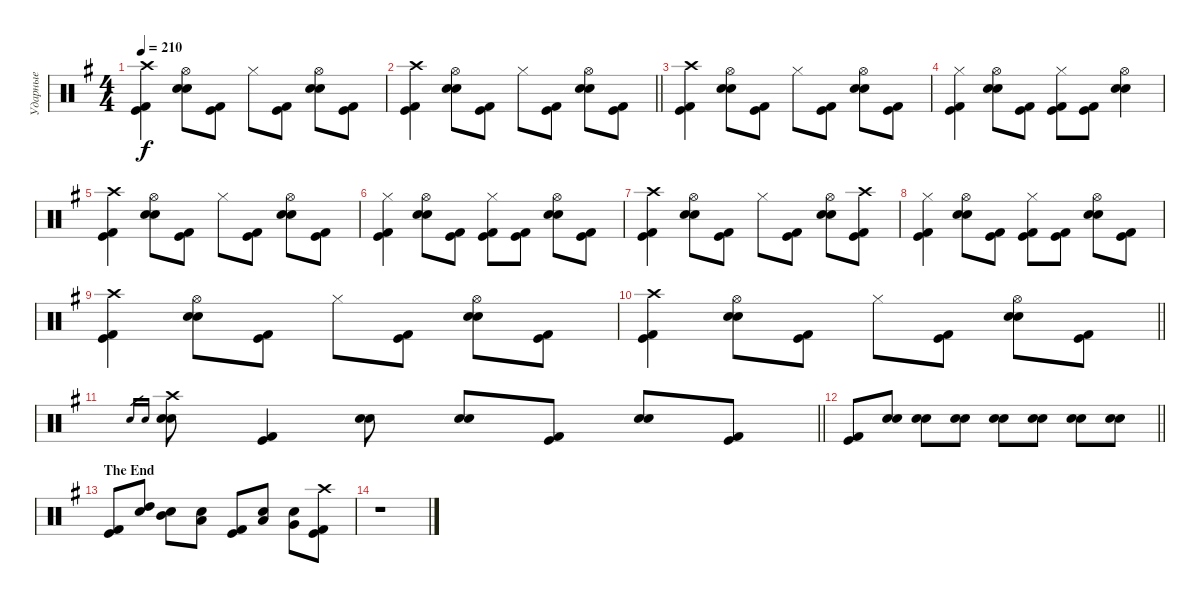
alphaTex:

\track ("Ударные" "Ударные") {instrument percussion}
\staff {score}
\articulation defaults
\ts (4 4)
\tempo 210
\clef neutral
\ks g
("Crash high (hit)" "Kick (hit) 2" "Kick (hit)").4{dy f} ("Hi-Hat (open)" "Electric Snare (hit)" "Snare (hit) 2").8 ("Kick (hit) 2" "Kick (hit)").8 "Hi-Hat (closed)".8 ("Kick (hit) 2" "Kick (hit)").8 ("Hi-Hat (open)" "Electric Snare (hit)" "Snare (hit) 2").8 ("Kick (hit) 2" "Kick (hit)").8 |
\barLineRight lightlight
("Crash high (hit)" "Kick (hit) 2" "Kick (hit)").4 ("Hi-Hat (open)" "Electric Snare (hit)" "Snare (hit) 2").8 ("Kick (hit) 2" "Kick (hit)").8 "Hi-Hat (closed)".8 ("Kick (hit) 2" "Kick (hit)").8 ("Hi-Hat (open)" "Electric Snare (hit)" "Snare (hit) 2").8 ("Kick (hit) 2" "Kick (hit)").8 |
("Crash high (hit)" "Kick (hit) 2" "Kick (hit)").4 ("Hi-Hat (open)" "Electric Snare (hit)" "Snare (hit) 2").8 ("Kick (hit) 2" "Kick (hit)").8 "Hi-Hat (closed)".8 ("Kick (hit) 2" "Kick (hit)").8 ("Hi-Hat (open)" "Electric Snare (hit)" "Snare (hit) 2").8 ("Kick (hit) 2" "Kick (hit)").8 |
("Hi-Hat (closed)" "Kick (hit) 2" "Kick (hit)").4 ("Hi-Hat (open)" "Electric Snare (hit)" "Snare (hit) 2").8 ("Kick (hit) 2" "Kick (hit)").8 ("Hi-Hat (closed)" "Kick (hit) 2" "Kick (hit)").8 ("Kick (hit) 2" "Kick (hit)").8 ("Hi-Hat (open)" "Electric Snare (hit)" "Snare (hit) 2").4 |
("Crash high (hit)" "Kick (hit) 2" "Kick (hit)").4 ("Hi-Hat (open)" "Electric Snare (hit)" "Snare (hit) 2").8 ("Kick (hit) 2" "Kick (hit)").8 "Hi-Hat (closed)".8 ("Kick (hit) 2" "Kick (hit)").8 ("Hi-Hat (open)" "Electric Snare (hit)" "Snare (hit) 2").8 ("Kick (hit) 2" "Kick (hit)").8 |
("Hi-Hat (closed)" "Kick (hit) 2" "Kick (hit)").4 ("Hi-Hat (open)" "Electric Snare (hit)" "Snare (hit) 2").8 ("Kick (hit) 2" "Kick (hit)").8 ("Hi-Hat (closed)" "Kick (hit) 2" "Kick (hit)").8 ("Kick (hit) 2" "Kick (hit)").8 ("Hi-Hat (open)" "Electric Snare (hit)" "Snare (hit) 2").8 ("Kick (hit) 2" "Kick (hit)").8 |
("Crash high (hit)" "Kick (hit) 2" "Kick (hit)").4 ("Hi-Hat (open)" "Electric Snare (hit)" "Snare (hit) 2").8 ("Kick (hit) 2" "Kick (hit)").8 "Hi-Hat (closed)".8 ("Kick (hit) 2" "Kick (hit)").8 ("Hi-Hat (open)" "Electric Snare (hit)" "Snare (hit) 2").8 ("Crash high (hit)" "Kick (hit) 2" "Kick (hit)").8 |
("Hi-Hat (closed)" "Kick (hit) 2" "Kick (hit)").4 ("Hi-Hat (open)" "Electric Snare (hit)" "Snare (hit) 2").8 ("Kick (hit) 2" "Kick (hit)").8 ("Hi-Hat (closed)" "Kick (hit) 2" "Kick (hit)").8 ("Kick (hit) 2" "Kick (hit)").8 ("Hi-Hat (open)" "Electric Snare (hit)" "Snare (hit) 2").8 ("Kick (hit) 2" "Kick (hit)").8 |
("Crash high (hit)" "Kick (hit) 2" "Kick (hit)").4 ("Hi-Hat (open)" "Electric Snare (hit)" "Snare (hit) 2").8 ("Kick (hit) 2" "Kick (hit)").8 "Hi-Hat (closed)".8 ("Kick (hit) 2" "Kick (hit)").8 ("Hi-Hat (open)" "Electric Snare (hit)" "Snare (hit) 2").8 ("Kick (hit) 2" "Kick (hit)").8 |
\barLineRight lightlight
("Crash high (hit)" "Kick (hit) 2" "Kick (hit)").4 ("Hi-Hat (open)" "Electric Snare (hit)" "Snare (hit) 2").8 ("Kick (hit) 2" "Kick (hit)").8 "Hi-Hat (closed)".8 ("Kick (hit) 2" "Kick (hit)").8 ("Hi-Hat (open)" "Electric Snare (hit)" "Snare (hit) 2").8 ("Kick (hit) 2" "Kick (hit)").8 |
\barLineRight lightlight "Electric Snare (hit)".16{gr} "Snare (hit) 2".16{gr}
("Crash high (hit)" "Electric Snare (hit)" "Snare (hit) 2").8 ("Kick (hit) 2" "Kick (hit)").4 ("Electric Snare (hit)" "Snare (hit) 2").8 ("Electric Snare (hit)" "Snare (hit) 2").8 ("Kick (hit) 2" "Kick (hit)").8 ("Electric Snare (hit)" "Snare (hit) 2").8 ("Kick (hit) 2" "Kick (hit)").8 |
\barLineRight lightlight
("Kick (hit) 2" "Kick (hit)").8 ("Electric Snare (hit)" "Snare (hit) 2").8 ("Electric Snare (hit)" "Snare (hit) 2").8 ("Electric Snare (hit)" "Snare (hit) 2").8 ("Electric Snare (hit)" "Snare (hit) 2").8 ("Electric Snare (hit)" "Snare (hit) 2").8 ("Electric Snare (hit)" "Snare (hit) 2").8 ("Electric Snare (hit)" "Snare (hit) 2").8 |
\section ("" "The End")
("Kick (hit) 2" "Kick (hit)").8 ("High Tom (hit)" "Snare (hit) 2").8 ("Mid Tom (hit)" "Snare (hit) 2").8 ("Low Tom (hit)" "Snare (hit) 2").8 ("Kick (hit) 2" "Kick (hit)").8 ("Low Tom (hit)" "Snare (hit) 2").8 ("Very Low Tom (hit)" "Snare (hit) 2").8 ("Crash high (hit)" "Kick (hit) 2" "Kick (hit)").8 |
r.1
